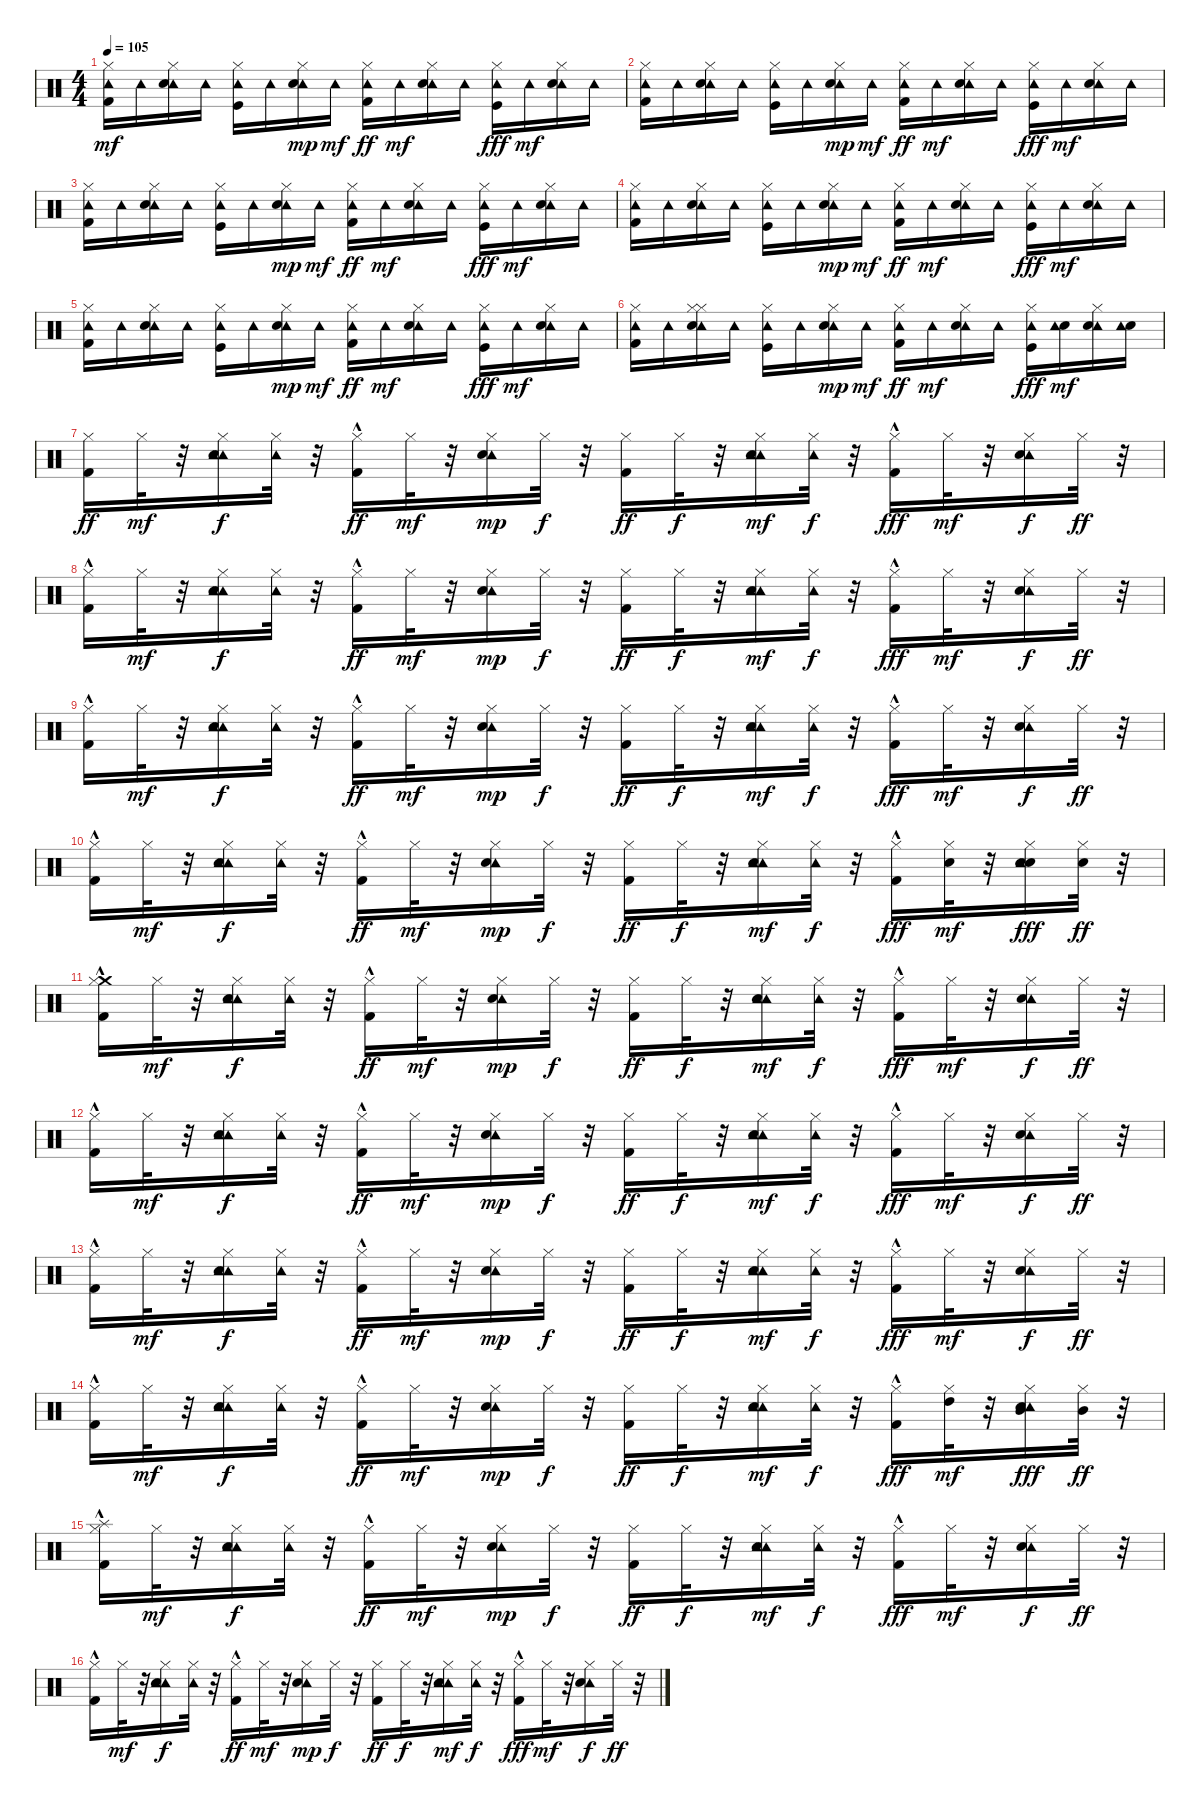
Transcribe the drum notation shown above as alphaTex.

\track "" {instrument percussion}
\staff {score}
\articulation defaults
\ts (4 4)
\tempo 105
\clef neutral
\ks c
("Kick (hit) 2" "Hi-Hat (closed)" "Tambourine (hit)").16{dy mf} "Tambourine (hit)".16 ("Hi-Hat (closed)" "Tambourine (hit)" "Snare (hit) 2").16 "Tambourine (hit)".16 ("Kick (hit)" "Hi-Hat (closed)" "Tambourine (hit)").16 "Tambourine (hit)".16 ("Tambourine (hit)" "Hi-Hat (closed)" "Snare (hit) 2").16{dy mp} "Tambourine (hit)".16{dy mf} ("Tambourine (hit)" "Hi-Hat (closed)" "Kick (hit) 2").16{dy ff} "Tambourine (hit)".16{dy mf} ("Tambourine (hit)" "Hi-Hat (closed)" "Snare (hit) 2").16 "Tambourine (hit)".16 ("Tambourine (hit)" "Kick (hit)" "Hi-Hat (closed)").16{dy fff} "Tambourine (hit)".16{dy mf} ("Tambourine (hit)" "Hi-Hat (closed)" "Snare (hit) 2").16 "Tambourine (hit)".16 |
("Kick (hit) 2" "Hi-Hat (closed)" "Tambourine (hit)").16 "Tambourine (hit)".16 ("Hi-Hat (closed)" "Tambourine (hit)" "Snare (hit) 2").16 "Tambourine (hit)".16 ("Kick (hit)" "Hi-Hat (closed)" "Tambourine (hit)").16 "Tambourine (hit)".16 ("Tambourine (hit)" "Hi-Hat (closed)" "Snare (hit) 2").16{dy mp} "Tambourine (hit)".16{dy mf} ("Tambourine (hit)" "Hi-Hat (closed)" "Kick (hit) 2").16{dy ff} "Tambourine (hit)".16{dy mf} ("Tambourine (hit)" "Hi-Hat (closed)" "Snare (hit) 2").16 "Tambourine (hit)".16 ("Tambourine (hit)" "Kick (hit)" "Hi-Hat (closed)").16{dy fff} "Tambourine (hit)".16{dy mf} ("Tambourine (hit)" "Hi-Hat (closed)" "Snare (hit) 2").16 "Tambourine (hit)".16 |
("Kick (hit) 2" "Hi-Hat (closed)" "Tambourine (hit)").16 "Tambourine (hit)".16 ("Hi-Hat (closed)" "Tambourine (hit)" "Snare (hit) 2").16 "Tambourine (hit)".16 ("Kick (hit)" "Hi-Hat (closed)" "Tambourine (hit)").16 "Tambourine (hit)".16 ("Tambourine (hit)" "Hi-Hat (closed)" "Snare (hit) 2").16{dy mp} "Tambourine (hit)".16{dy mf} ("Tambourine (hit)" "Hi-Hat (closed)" "Kick (hit) 2").16{dy ff} "Tambourine (hit)".16{dy mf} ("Tambourine (hit)" "Hi-Hat (closed)" "Snare (hit) 2").16 "Tambourine (hit)".16 ("Tambourine (hit)" "Kick (hit)" "Hi-Hat (closed)").16{dy fff} "Tambourine (hit)".16{dy mf} ("Tambourine (hit)" "Hi-Hat (closed)" "Snare (hit) 2").16 "Tambourine (hit)".16 |
("Kick (hit) 2" "Hi-Hat (closed)" "Tambourine (hit)").16 "Tambourine (hit)".16 ("Hi-Hat (closed)" "Tambourine (hit)" "Snare (hit) 2").16 "Tambourine (hit)".16 ("Kick (hit)" "Hi-Hat (closed)" "Tambourine (hit)").16 "Tambourine (hit)".16 ("Tambourine (hit)" "Hi-Hat (closed)" "Snare (hit) 2").16{dy mp} "Tambourine (hit)".16{dy mf} ("Tambourine (hit)" "Hi-Hat (closed)" "Kick (hit) 2").16{dy ff} "Tambourine (hit)".16{dy mf} ("Tambourine (hit)" "Hi-Hat (closed)" "Snare (hit) 2").16 "Tambourine (hit)".16 ("Tambourine (hit)" "Kick (hit)" "Hi-Hat (closed)").16{dy fff} "Tambourine (hit)".16{dy mf} ("Tambourine (hit)" "Hi-Hat (closed)" "Snare (hit) 2").16 "Tambourine (hit)".16 |
("Kick (hit) 2" "Hi-Hat (closed)" "Tambourine (hit)").16 "Tambourine (hit)".16 ("Hi-Hat (closed)" "Tambourine (hit)" "Snare (hit) 2").16 "Tambourine (hit)".16 ("Kick (hit)" "Hi-Hat (closed)" "Tambourine (hit)").16 "Tambourine (hit)".16 ("Tambourine (hit)" "Hi-Hat (closed)" "Snare (hit) 2").16{dy mp} "Tambourine (hit)".16{dy mf} ("Tambourine (hit)" "Hi-Hat (closed)" "Kick (hit) 2").16{dy ff} "Tambourine (hit)".16{dy mf} ("Tambourine (hit)" "Hi-Hat (closed)" "Snare (hit) 2").16 "Tambourine (hit)".16 ("Tambourine (hit)" "Kick (hit)" "Hi-Hat (closed)").16{dy fff} "Tambourine (hit)".16{dy mf} ("Tambourine (hit)" "Hi-Hat (closed)" "Snare (hit) 2").16 "Tambourine (hit)".16 |
("Kick (hit) 2" "Hi-Hat (closed)" "Tambourine (hit)").16 "Tambourine (hit)".16 ("Hi-Hat (closed)" "Tambourine (hit)" "Hi-Hat (closed)" "Snare (hit) 2").16 "Tambourine (hit)".16 ("Kick (hit)" "Hi-Hat (closed)" "Tambourine (hit)").16 "Tambourine (hit)".16 ("Tambourine (hit)" "Hi-Hat (closed)" "Snare (hit) 2").16{dy mp} "Tambourine (hit)".16{dy mf} ("Tambourine (hit)" "Hi-Hat (closed)" "Kick (hit) 2").16{dy ff} "Tambourine (hit)".16{dy mf} ("Tambourine (hit)" "Hi-Hat (closed)" "Snare (hit) 2").16 "Tambourine (hit)".16 ("Tambourine (hit)" "Kick (hit)" "Hi-Hat (closed)").16{dy fff} ("Snare (hit) 2" "Tambourine (hit)").16{dy mf} ("Hi-Hat (closed)" "Tambourine (hit)" "Snare (hit) 2").16 ("Snare (hit) 2" "Tambourine (hit)").16 |
("Hi-Hat (closed)" "Kick (hit) 2").16{dy ff} "Hi-Hat (closed)".32{dy mf} r.32 ("Hi-Hat (closed)" "Tambourine (hit)" "Snare (hit) 2" "Tambourine (hit)").16{dy f} ("Hi-Hat (closed)" "Tambourine (hit)").32 r.32 ("Hi-Hat (closed)" "Kick (hit) 2"{hac}).16{dy ff} "Hi-Hat (closed)".32{dy mf} r.32 ("Hi-Hat (closed)" "Tambourine (hit)" "Snare (hit) 2").16{dy mp} "Hi-Hat (closed)".32{dy f} r.32 ("Hi-Hat (closed)" "Kick (hit) 2").16{dy ff} "Hi-Hat (closed)".32{dy f} r.32 ("Hi-Hat (closed)" "Tambourine (hit)" "Snare (hit) 2" "Tambourine (hit)").16{dy mf} ("Tambourine (hit)" "Hi-Hat (closed)").32{dy f} r.32 ("Kick (hit) 2"{hac} "Hi-Hat (closed)").16{dy fff} "Hi-Hat (closed)".32{dy mf} r.32 ("Tambourine (hit)" "Snare (hit) 2" "Hi-Hat (closed)").16{dy f} "Hi-Hat (closed)".32{dy ff} r.32 |
("Hi-Hat (closed)" "Kick (hit) 2"{hac}).16 "Hi-Hat (closed)".32{dy mf} r.32 ("Hi-Hat (closed)" "Tambourine (hit)" "Snare (hit) 2" "Tambourine (hit)").16{dy f} ("Hi-Hat (closed)" "Tambourine (hit)").32 r.32 ("Hi-Hat (closed)" "Kick (hit) 2"{hac}).16{dy ff} "Hi-Hat (closed)".32{dy mf} r.32 ("Hi-Hat (closed)" "Tambourine (hit)" "Snare (hit) 2").16{dy mp} "Hi-Hat (closed)".32{dy f} r.32 ("Hi-Hat (closed)" "Kick (hit) 2").16{dy ff} "Hi-Hat (closed)".32{dy f} r.32 ("Hi-Hat (closed)" "Tambourine (hit)" "Snare (hit) 2" "Tambourine (hit)").16{dy mf} ("Tambourine (hit)" "Hi-Hat (closed)").32{dy f} r.32 ("Kick (hit) 2"{hac} "Hi-Hat (closed)").16{dy fff} "Hi-Hat (closed)".32{dy mf} r.32 ("Tambourine (hit)" "Snare (hit) 2" "Hi-Hat (closed)").16{dy f} "Hi-Hat (closed)".32{dy ff} r.32 |
("Hi-Hat (closed)" "Kick (hit) 2"{hac}).16 "Hi-Hat (closed)".32{dy mf} r.32 ("Hi-Hat (closed)" "Tambourine (hit)" "Snare (hit) 2" "Tambourine (hit)").16{dy f} ("Hi-Hat (closed)" "Tambourine (hit)").32 r.32 ("Hi-Hat (closed)" "Kick (hit) 2"{hac}).16{dy ff} "Hi-Hat (closed)".32{dy mf} r.32 ("Hi-Hat (closed)" "Tambourine (hit)" "Snare (hit) 2").16{dy mp} "Hi-Hat (closed)".32{dy f} r.32 ("Hi-Hat (closed)" "Kick (hit) 2").16{dy ff} "Hi-Hat (closed)".32{dy f} r.32 ("Hi-Hat (closed)" "Tambourine (hit)" "Snare (hit) 2" "Tambourine (hit)").16{dy mf} ("Tambourine (hit)" "Hi-Hat (closed)").32{dy f} r.32 ("Kick (hit) 2"{hac} "Hi-Hat (closed)").16{dy fff} "Hi-Hat (closed)".32{dy mf} r.32 ("Tambourine (hit)" "Snare (hit) 2" "Hi-Hat (closed)").16{dy f} "Hi-Hat (closed)".32{dy ff} r.32 |
("Hi-Hat (closed)" "Kick (hit) 2"{hac}).16 "Hi-Hat (closed)".32{dy mf} r.32 ("Hi-Hat (closed)" "Tambourine (hit)" "Snare (hit) 2" "Tambourine (hit)").16{dy f} ("Hi-Hat (closed)" "Tambourine (hit)").32 r.32 ("Hi-Hat (closed)" "Kick (hit) 2"{hac}).16{dy ff} "Hi-Hat (closed)".32{dy mf} r.32 ("Hi-Hat (closed)" "Tambourine (hit)" "Snare (hit) 2").16{dy mp} "Hi-Hat (closed)".32{dy f} r.32 ("Hi-Hat (closed)" "Kick (hit) 2").16{dy ff} "Hi-Hat (closed)".32{dy f} r.32 ("Hi-Hat (closed)" "Tambourine (hit)" "Snare (hit) 2" "Tambourine (hit)").16{dy mf} ("Tambourine (hit)" "Hi-Hat (closed)").32{dy f} r.32 ("Kick (hit) 2"{hac} "Hi-Hat (closed)").16{dy fff} ("Snare (hit) 2" "Hi-Hat (closed)").32{dy mf} r.32 ("Snare (hit) 2" "Tambourine (hit)" "Snare (hit) 2" "Hi-Hat (closed)").16{dy fff} ("Snare (hit) 2" "Hi-Hat (closed)").32{dy ff} r.32 |
("Crash medium (hit)" "Hi-Hat (closed)" "Kick (hit) 2"{hac}).16 "Hi-Hat (closed)".32{dy mf} r.32 ("Hi-Hat (closed)" "Tambourine (hit)" "Snare (hit) 2" "Tambourine (hit)").16{dy f} ("Hi-Hat (closed)" "Tambourine (hit)").32 r.32 ("Hi-Hat (closed)" "Kick (hit) 2"{hac}).16{dy ff} "Hi-Hat (closed)".32{dy mf} r.32 ("Hi-Hat (closed)" "Tambourine (hit)" "Snare (hit) 2").16{dy mp} "Hi-Hat (closed)".32{dy f} r.32 ("Hi-Hat (closed)" "Kick (hit) 2").16{dy ff} "Hi-Hat (closed)".32{dy f} r.32 ("Hi-Hat (closed)" "Tambourine (hit)" "Snare (hit) 2" "Tambourine (hit)").16{dy mf} ("Tambourine (hit)" "Hi-Hat (closed)").32{dy f} r.32 ("Kick (hit) 2"{hac} "Hi-Hat (closed)").16{dy fff} "Hi-Hat (closed)".32{dy mf} r.32 ("Tambourine (hit)" "Snare (hit) 2" "Hi-Hat (closed)").16{dy f} "Hi-Hat (closed)".32{dy ff} r.32 |
("Hi-Hat (closed)" "Kick (hit) 2"{hac}).16 "Hi-Hat (closed)".32{dy mf} r.32 ("Hi-Hat (closed)" "Tambourine (hit)" "Snare (hit) 2" "Tambourine (hit)").16{dy f} ("Hi-Hat (closed)" "Tambourine (hit)").32 r.32 ("Hi-Hat (closed)" "Kick (hit) 2"{hac}).16{dy ff} "Hi-Hat (closed)".32{dy mf} r.32 ("Hi-Hat (closed)" "Tambourine (hit)" "Snare (hit) 2").16{dy mp} "Hi-Hat (closed)".32{dy f} r.32 ("Hi-Hat (closed)" "Kick (hit) 2").16{dy ff} "Hi-Hat (closed)".32{dy f} r.32 ("Hi-Hat (closed)" "Tambourine (hit)" "Snare (hit) 2" "Tambourine (hit)").16{dy mf} ("Tambourine (hit)" "Hi-Hat (closed)").32{dy f} r.32 ("Kick (hit) 2"{hac} "Hi-Hat (closed)").16{dy fff} "Hi-Hat (closed)".32{dy mf} r.32 ("Tambourine (hit)" "Snare (hit) 2" "Hi-Hat (closed)").16{dy f} "Hi-Hat (closed)".32{dy ff} r.32 |
("Hi-Hat (closed)" "Kick (hit) 2"{hac}).16 "Hi-Hat (closed)".32{dy mf} r.32 ("Hi-Hat (closed)" "Tambourine (hit)" "Snare (hit) 2" "Tambourine (hit)").16{dy f} ("Hi-Hat (closed)" "Tambourine (hit)").32 r.32 ("Hi-Hat (closed)" "Kick (hit) 2"{hac}).16{dy ff} "Hi-Hat (closed)".32{dy mf} r.32 ("Hi-Hat (closed)" "Tambourine (hit)" "Snare (hit) 2").16{dy mp} "Hi-Hat (closed)".32{dy f} r.32 ("Hi-Hat (closed)" "Kick (hit) 2").16{dy ff} "Hi-Hat (closed)".32{dy f} r.32 ("Hi-Hat (closed)" "Tambourine (hit)" "Snare (hit) 2" "Tambourine (hit)").16{dy mf} ("Tambourine (hit)" "Hi-Hat (closed)").32{dy f} r.32 ("Kick (hit) 2"{hac} "Hi-Hat (closed)").16{dy fff} "Hi-Hat (closed)".32{dy mf} r.32 ("Tambourine (hit)" "Snare (hit) 2" "Hi-Hat (closed)").16{dy f} "Hi-Hat (closed)".32{dy ff} r.32 |
("Hi-Hat (closed)" "Kick (hit) 2"{hac}).16 "Hi-Hat (closed)".32{dy mf} r.32 ("Hi-Hat (closed)" "Tambourine (hit)" "Snare (hit) 2" "Tambourine (hit)").16{dy f} ("Hi-Hat (closed)" "Tambourine (hit)").32 r.32 ("Hi-Hat (closed)" "Kick (hit) 2"{hac}).16{dy ff} "Hi-Hat (closed)".32{dy mf} r.32 ("Hi-Hat (closed)" "Tambourine (hit)" "Snare (hit) 2").16{dy mp} "Hi-Hat (closed)".32{dy f} r.32 ("Hi-Hat (closed)" "Kick (hit) 2").16{dy ff} "Hi-Hat (closed)".32{dy f} r.32 ("Hi-Hat (closed)" "Tambourine (hit)" "Snare (hit) 2" "Tambourine (hit)").16{dy mf} ("Tambourine (hit)" "Hi-Hat (closed)").32{dy f} r.32 ("Kick (hit) 2"{hac} "Hi-Hat (closed)").16{dy fff} ("High Tom (hit)" "Hi-Hat (closed)").32{dy mf} r.32 ("Mid Tom (hit)" "Tambourine (hit)" "Snare (hit) 2" "Hi-Hat (closed)").16{dy fff} ("Mid Tom (hit)" "Hi-Hat (closed)").32{dy ff} r.32 |
("Splash (hit)" "Hi-Hat (closed)" "Kick (hit) 2"{hac}).16 "Hi-Hat (closed)".32{dy mf} r.32 ("Hi-Hat (closed)" "Tambourine (hit)" "Snare (hit) 2" "Tambourine (hit)").16{dy f} ("Hi-Hat (closed)" "Tambourine (hit)").32 r.32 ("Hi-Hat (closed)" "Kick (hit) 2"{hac}).16{dy ff} "Hi-Hat (closed)".32{dy mf} r.32 ("Hi-Hat (closed)" "Tambourine (hit)" "Snare (hit) 2").16{dy mp} "Hi-Hat (closed)".32{dy f} r.32 ("Hi-Hat (closed)" "Kick (hit) 2").16{dy ff} "Hi-Hat (closed)".32{dy f} r.32 ("Hi-Hat (closed)" "Tambourine (hit)" "Snare (hit) 2" "Tambourine (hit)").16{dy mf} ("Tambourine (hit)" "Hi-Hat (closed)").32{dy f} r.32 ("Kick (hit) 2"{hac} "Hi-Hat (closed)").16{dy fff} "Hi-Hat (closed)".32{dy mf} r.32 ("Tambourine (hit)" "Snare (hit) 2" "Hi-Hat (closed)").16{dy f} "Hi-Hat (closed)".32{dy ff} r.32 |
("Hi-Hat (closed)" "Kick (hit) 2"{hac}).16 "Hi-Hat (closed)".32{dy mf} r.32 ("Hi-Hat (closed)" "Tambourine (hit)" "Snare (hit) 2" "Tambourine (hit)").16{dy f} ("Hi-Hat (closed)" "Tambourine (hit)").32 r.32 ("Hi-Hat (closed)" "Kick (hit) 2"{hac}).16{dy ff} "Hi-Hat (closed)".32{dy mf} r.32 ("Hi-Hat (closed)" "Tambourine (hit)" "Snare (hit) 2").16{dy mp} "Hi-Hat (closed)".32{dy f} r.32 ("Hi-Hat (closed)" "Kick (hit) 2").16{dy ff} "Hi-Hat (closed)".32{dy f} r.32 ("Hi-Hat (closed)" "Tambourine (hit)" "Snare (hit) 2" "Tambourine (hit)").16{dy mf} ("Tambourine (hit)" "Hi-Hat (closed)").32{dy f} r.32 ("Kick (hit) 2"{hac} "Hi-Hat (closed)").16{dy fff} "Hi-Hat (closed)".32{dy mf} r.32 ("Tambourine (hit)" "Snare (hit) 2" "Hi-Hat (closed)").16{dy f} "Hi-Hat (closed)".32{dy ff} r.32
